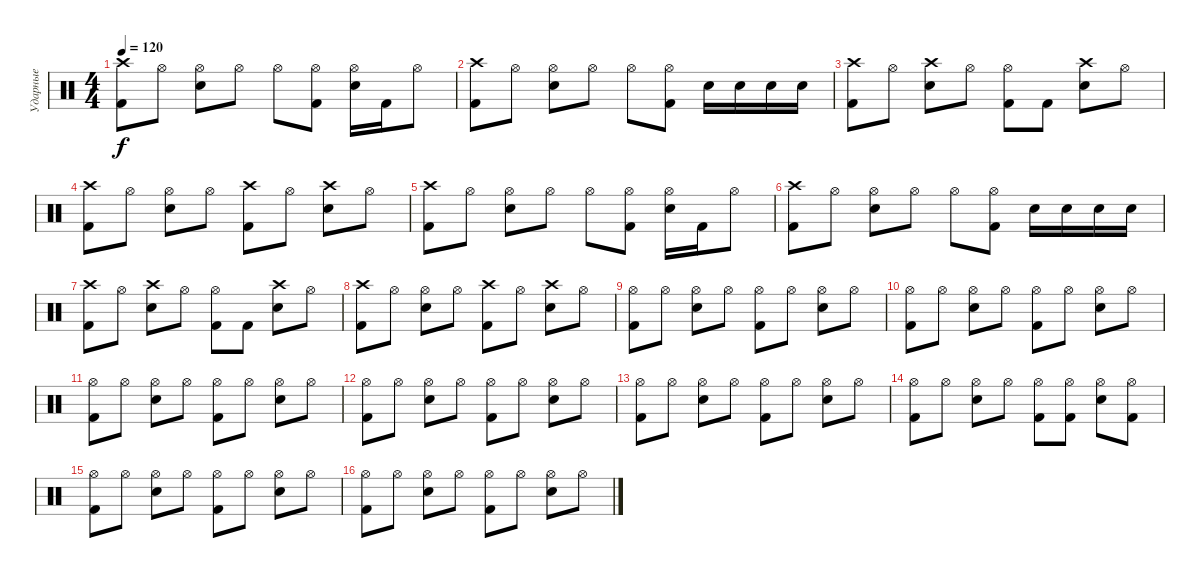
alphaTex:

\track ("Ударные" "Ударные") {instrument percussion}
\staff {score}
\articulation defaults
\ts (4 4)
\tempo 120
\clef neutral
\ks c
("Crash high (hit)" "Kick (hit) 2").8{dy f} "Hi-Hat (open)".8 ("Snare (hit) 2" "Hi-Hat (open)").8 "Hi-Hat (open)".8 "Hi-Hat (open)".8 ("Kick (hit) 2" "Hi-Hat (open)").8 ("Snare (hit) 2" "Hi-Hat (open)").16 "Kick (hit) 2".16 "Hi-Hat (open)".8 |
("Crash high (hit)" "Kick (hit) 2").8 "Hi-Hat (open)".8 ("Snare (hit) 2" "Hi-Hat (open)").8 "Hi-Hat (open)".8 "Hi-Hat (open)".8 ("Kick (hit) 2" "Hi-Hat (open)").8 "Electric Snare (hit)".16 "Electric Snare (hit)".16 "Electric Snare (hit)".16 "Electric Snare (hit)".16 |
("Crash high (hit)" "Kick (hit) 2").8 "Hi-Hat (open)".8 ("Snare (hit) 2" "Crash high (hit)").8 "Hi-Hat (open)".8 ("Kick (hit) 2" "Hi-Hat (open)").8 "Kick (hit) 2".8 ("Snare (hit) 2" "Crash high (hit)").8 "Hi-Hat (open)".8 |
("Crash high (hit)" "Kick (hit) 2").8 "Hi-Hat (open)".8 ("Snare (hit) 2" "Hi-Hat (open)").8 "Hi-Hat (open)".8 ("Kick (hit) 2" "Crash high (hit)").8 "Hi-Hat (open)".8 ("Snare (hit) 2" "Crash high (hit)").8 "Hi-Hat (open)".8 |
("Crash high (hit)" "Kick (hit) 2").8 "Hi-Hat (open)".8 ("Snare (hit) 2" "Hi-Hat (open)").8 "Hi-Hat (open)".8 "Hi-Hat (open)".8 ("Kick (hit) 2" "Hi-Hat (open)").8 ("Snare (hit) 2" "Hi-Hat (open)").16 "Kick (hit) 2".16 "Hi-Hat (open)".8 |
("Crash high (hit)" "Kick (hit) 2").8 "Hi-Hat (open)".8 ("Snare (hit) 2" "Hi-Hat (open)").8 "Hi-Hat (open)".8 "Hi-Hat (open)".8 ("Kick (hit) 2" "Hi-Hat (open)").8 "Electric Snare (hit)".16 "Electric Snare (hit)".16 "Electric Snare (hit)".16 "Electric Snare (hit)".16 |
("Crash high (hit)" "Kick (hit) 2").8 "Hi-Hat (open)".8 ("Snare (hit) 2" "Crash high (hit)").8 "Hi-Hat (open)".8 ("Kick (hit) 2" "Hi-Hat (open)").8 "Kick (hit) 2".8 ("Snare (hit) 2" "Crash high (hit)").8 "Hi-Hat (open)".8 |
("Crash high (hit)" "Kick (hit) 2").8 "Hi-Hat (open)".8 ("Snare (hit) 2" "Hi-Hat (open)").8 "Hi-Hat (open)".8 ("Kick (hit) 2" "Crash high (hit)").8 "Hi-Hat (open)".8 ("Snare (hit) 2" "Crash high (hit)").8 "Hi-Hat (open)".8 |
("Hi-Hat (open)" "Kick (hit) 2").8 "Hi-Hat (open)".8 ("Snare (hit) 2" "Hi-Hat (open)").8 "Hi-Hat (open)".8 ("Kick (hit) 2" "Hi-Hat (open)").8 "Hi-Hat (open)".8 ("Snare (hit) 2" "Hi-Hat (open)").8 "Hi-Hat (open)".8 |
("Hi-Hat (open)" "Kick (hit) 2").8 "Hi-Hat (open)".8 ("Snare (hit) 2" "Hi-Hat (open)").8 "Hi-Hat (open)".8 ("Kick (hit) 2" "Hi-Hat (open)").8 "Hi-Hat (open)".8 ("Snare (hit) 2" "Hi-Hat (open)").8 "Hi-Hat (open)".8 |
("Hi-Hat (open)" "Kick (hit) 2").8 "Hi-Hat (open)".8 ("Snare (hit) 2" "Hi-Hat (open)").8 "Hi-Hat (open)".8 ("Kick (hit) 2" "Hi-Hat (open)").8 "Hi-Hat (open)".8 ("Snare (hit) 2" "Hi-Hat (open)").8 "Hi-Hat (open)".8 |
("Hi-Hat (open)" "Kick (hit) 2").8 "Hi-Hat (open)".8 ("Snare (hit) 2" "Hi-Hat (open)").8 "Hi-Hat (open)".8 ("Kick (hit) 2" "Hi-Hat (open)").8 "Hi-Hat (open)".8 ("Snare (hit) 2" "Hi-Hat (open)").8 "Hi-Hat (open)".8 |
("Hi-Hat (open)" "Kick (hit) 2").8 "Hi-Hat (open)".8 ("Snare (hit) 2" "Hi-Hat (open)").8 "Hi-Hat (open)".8 ("Kick (hit) 2" "Hi-Hat (open)").8 "Hi-Hat (open)".8 ("Snare (hit) 2" "Hi-Hat (open)").8 "Hi-Hat (open)".8 |
("Hi-Hat (open)" "Kick (hit) 2").8 "Hi-Hat (open)".8 ("Snare (hit) 2" "Hi-Hat (open)").8 "Hi-Hat (open)".8 ("Kick (hit) 2" "Hi-Hat (open)").8 ("Kick (hit) 2" "Hi-Hat (open)").8 ("Snare (hit) 2" "Hi-Hat (open)").8 ("Kick (hit) 2" "Hi-Hat (open)").8 |
("Hi-Hat (open)" "Kick (hit) 2").8 "Hi-Hat (open)".8 ("Snare (hit) 2" "Hi-Hat (open)").8 "Hi-Hat (open)".8 ("Kick (hit) 2" "Hi-Hat (open)").8 "Hi-Hat (open)".8 ("Snare (hit) 2" "Hi-Hat (open)").8 "Hi-Hat (open)".8 |
("Hi-Hat (open)" "Kick (hit) 2").8 "Hi-Hat (open)".8 ("Snare (hit) 2" "Hi-Hat (open)").8 "Hi-Hat (open)".8 ("Kick (hit) 2" "Hi-Hat (open)").8 "Hi-Hat (open)".8 ("Snare (hit) 2" "Hi-Hat (open)").8 "Hi-Hat (open)".8
